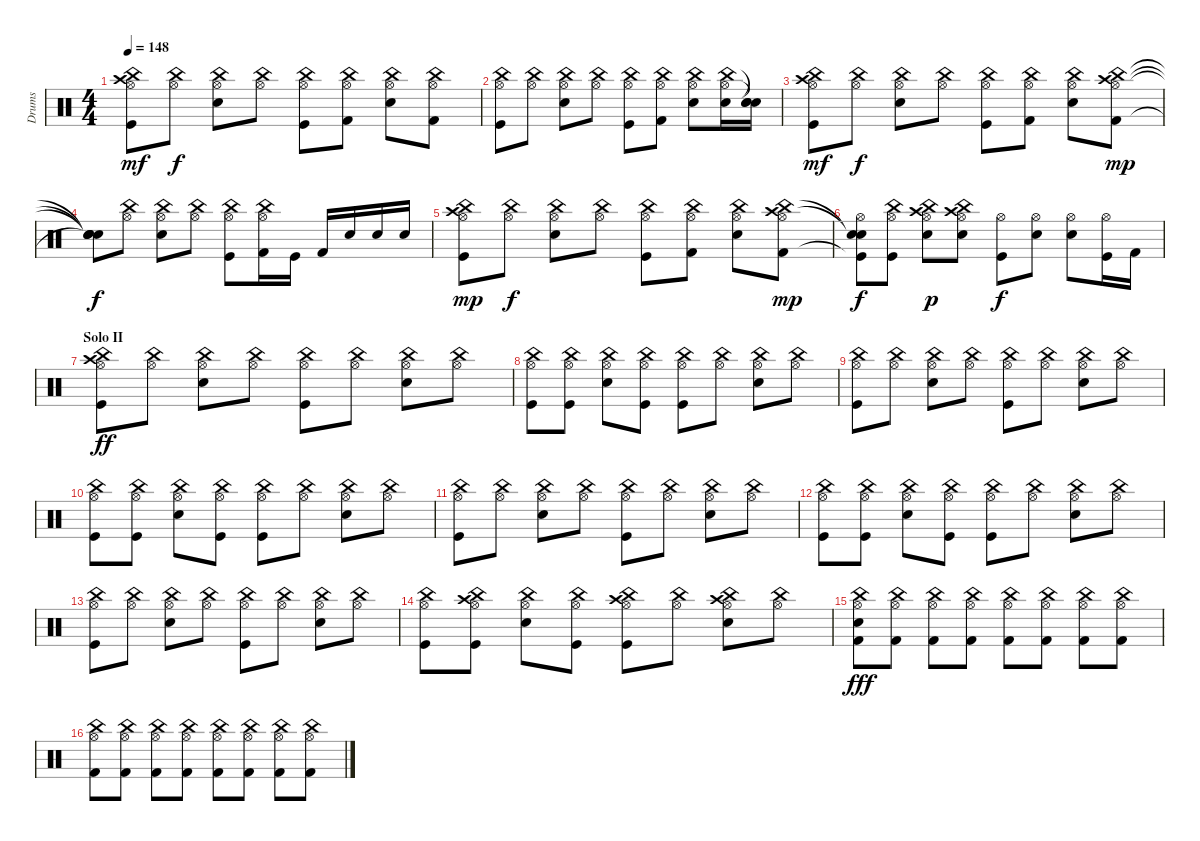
\track ("Drums" "Drums") {instrument percussion}
\staff {score}
\articulation defaults
\ts (4 4)
\tempo 148
\clef neutral
\ks c
("Crash high (hit)" "Hi-Hat (open)" "China (hit)" "Kick (hit)").8{dy mf} ("Hi-Hat (open)" "China (hit)").8{dy f} ("Hi-Hat (open)" "China (hit)" "Snare (hit) 2").8 ("Hi-Hat (open)" "China (hit)").8 ("Hi-Hat (open)" "China (hit)" "Kick (hit)").8 ("Hi-Hat (open)" "China (hit)" "Kick (hit) 2").8 ("Hi-Hat (open)" "China (hit)" "Snare (hit) 2").8 ("Hi-Hat (open)" "China (hit)" "Kick (hit) 2").8 |
("Hi-Hat (open)" "China (hit)" "Kick (hit)").8 ("Hi-Hat (open)" "China (hit)").8 ("Hi-Hat (open)" "China (hit)" "Snare (hit) 2").8 ("Hi-Hat (open)" "China (hit)").8 ("Hi-Hat (open)" "China (hit)" "Kick (hit)").8 ("Hi-Hat (open)" "China (hit)" "Kick (hit) 2").8 ("Hi-Hat (open)" "China (hit)" "Snare (hit) 2").8 ("Hi-Hat (open)" "China (hit)" "Snare (hit) 2").16 ("Snare (hit)"{t} "Snare (hit)"{t} "Electric Snare (hit)").16 |
("Crash high (hit)" "Hi-Hat (open)" "China (hit)" "Kick (hit)").8{dy mf} ("Hi-Hat (open)" "China (hit)").8{dy f} ("Hi-Hat (open)" "China (hit)" "Snare (hit) 2").8 ("Hi-Hat (open)" "China (hit)").8 ("Hi-Hat (open)" "China (hit)" "Kick (hit)").8 ("Hi-Hat (open)" "China (hit)" "Kick (hit) 2").8 ("Hi-Hat (open)" "China (hit)" "Snare (hit) 2").8 ("Crash high (hit)" "Hi-Hat (open)" "China (hit)" "Kick (hit) 2").8{dy mp} |
("Snare (hit)"{t} "Snare (hit)"{t} "Snare (hit)"{t} "Snare (hit)"{t}).8{dy f} ("Hi-Hat (open)" "China (hit)").8 ("Hi-Hat (open)" "China (hit)" "Snare (hit) 2").8 ("Hi-Hat (open)" "China (hit)").8 ("Hi-Hat (open)" "China (hit)" "Kick (hit)").8 ("Hi-Hat (open)" "China (hit)" "Kick (hit) 2").16 "Kick (hit)".16 "Kick (hit) 2".16 "Snare (hit) 2".16 "Electric Snare (hit)".16 "Snare (hit) 2".16 |
("Crash high (hit)" "Hi-Hat (open)" "China (hit)" "Kick (hit)").8{dy mp} ("Hi-Hat (open)" "China (hit)").8{dy f} ("Hi-Hat (open)" "China (hit)" "Snare (hit) 2").8 ("Hi-Hat (open)" "China (hit)").8 ("Hi-Hat (open)" "China (hit)" "Kick (hit)").8 ("Hi-Hat (open)" "China (hit)" "Kick (hit) 2").8 ("Hi-Hat (open)" "China (hit)" "Snare (hit) 2").8 ("Crash high (hit)" "Hi-Hat (open)" "China (hit)" "Kick (hit) 2").8{dy mp} |
("Snare (hit)"{t} "Hi-Hat (open)" "Snare (hit)"{t} "Kick (hit)"{t}).8{dy f} ("Hi-Hat (open)" "China (hit)" "Kick (hit)").8 ("Crash high (hit)" "Hi-Hat (open)" "China (hit)" "Snare (hit) 2").8{dy p} ("Crash high (hit)" "Hi-Hat (open)" "China (hit)" "Snare (hit) 2").8 ("Hi-Hat (open)" "Kick (hit)").8{dy f} ("Hi-Hat (open)" "Snare (hit) 2").8 ("Hi-Hat (open)" "Snare (hit) 2").8 ("Hi-Hat (open)" "Kick (hit)").16 "Kick (hit) 2".16 |
\section ("" "Solo II")
("Crash high (hit)" "Hi-Hat (open)" "China (hit)" "Kick (hit)").8{dy ff} ("Hi-Hat (open)" "China (hit)").8 ("Hi-Hat (open)" "China (hit)" "Snare (hit) 2").8 ("Hi-Hat (open)" "China (hit)").8 ("Hi-Hat (open)" "China (hit)" "Kick (hit)").8 ("Hi-Hat (open)" "China (hit)").8 ("Hi-Hat (open)" "China (hit)" "Snare (hit) 2").8 ("Hi-Hat (open)" "China (hit)").8 |
("Hi-Hat (open)" "China (hit)" "Kick (hit)").8 ("Hi-Hat (open)" "China (hit)" "Kick (hit)").8 ("Hi-Hat (open)" "China (hit)" "Snare (hit) 2").8 ("Hi-Hat (open)" "China (hit)" "Kick (hit)").8 ("Hi-Hat (open)" "China (hit)" "Kick (hit)").8 ("Hi-Hat (open)" "China (hit)").8 ("Hi-Hat (open)" "China (hit)" "Snare (hit) 2").8 ("Hi-Hat (open)" "China (hit)").8 |
("Hi-Hat (open)" "China (hit)" "Kick (hit)").8 ("Hi-Hat (open)" "China (hit)").8 ("Hi-Hat (open)" "China (hit)" "Snare (hit) 2").8 ("Hi-Hat (open)" "China (hit)").8 ("Hi-Hat (open)" "China (hit)" "Kick (hit)").8 ("Hi-Hat (open)" "China (hit)").8 ("Hi-Hat (open)" "China (hit)" "Snare (hit) 2").8 ("Hi-Hat (open)" "China (hit)").8 |
("Hi-Hat (open)" "China (hit)" "Kick (hit)").8 ("Hi-Hat (open)" "China (hit)" "Kick (hit)").8 ("Hi-Hat (open)" "China (hit)" "Snare (hit) 2").8 ("Hi-Hat (open)" "China (hit)" "Kick (hit)").8 ("Hi-Hat (open)" "China (hit)" "Kick (hit)").8 ("Hi-Hat (open)" "China (hit)").8 ("Hi-Hat (open)" "China (hit)" "Snare (hit) 2").8 ("Hi-Hat (open)" "China (hit)").8 |
("Hi-Hat (open)" "China (hit)" "Kick (hit)").8 ("Hi-Hat (open)" "China (hit)").8 ("Hi-Hat (open)" "China (hit)" "Snare (hit) 2").8 ("Hi-Hat (open)" "China (hit)").8 ("Hi-Hat (open)" "China (hit)" "Kick (hit)").8 ("Hi-Hat (open)" "China (hit)").8 ("Hi-Hat (open)" "China (hit)" "Snare (hit) 2").8 ("Hi-Hat (open)" "China (hit)").8 |
("Hi-Hat (open)" "China (hit)" "Kick (hit)").8 ("Hi-Hat (open)" "China (hit)" "Kick (hit)").8 ("Hi-Hat (open)" "China (hit)" "Snare (hit) 2").8 ("Hi-Hat (open)" "China (hit)" "Kick (hit)").8 ("Hi-Hat (open)" "China (hit)" "Kick (hit)").8 ("Hi-Hat (open)" "China (hit)").8 ("Hi-Hat (open)" "China (hit)" "Snare (hit) 2").8 ("Hi-Hat (open)" "China (hit)").8 |
("Hi-Hat (open)" "China (hit)" "Kick (hit)").8 ("Hi-Hat (open)" "China (hit)").8 ("Hi-Hat (open)" "China (hit)" "Snare (hit) 2").8 ("Hi-Hat (open)" "China (hit)").8 ("Hi-Hat (open)" "China (hit)" "Kick (hit)").8 ("Hi-Hat (open)" "China (hit)").8 ("Hi-Hat (open)" "China (hit)" "Snare (hit) 2").8 ("Hi-Hat (open)" "China (hit)").8 |
("Hi-Hat (open)" "China (hit)" "Kick (hit)").8 ("Crash high (hit)" "Hi-Hat (open)" "China (hit)" "Kick (hit)").8 ("Hi-Hat (open)" "China (hit)" "Snare (hit) 2").8 ("Hi-Hat (open)" "China (hit)" "Kick (hit)").8 ("Crash high (hit)" "Hi-Hat (open)" "China (hit)" "Kick (hit)").8 ("Hi-Hat (open)" "China (hit)").8 ("Crash high (hit)" "Hi-Hat (open)" "China (hit)" "Snare (hit) 2").8 ("Hi-Hat (open)" "China (hit)").8 |
("Hi-Hat (open)" "China (hit)" "Snare (hit) 2" "Kick (hit) 2").8{dy fff} ("Hi-Hat (open)" "China (hit)" "Kick (hit) 2").8 ("Hi-Hat (open)" "China (hit)" "Kick (hit) 2").8 ("Hi-Hat (open)" "China (hit)" "Kick (hit) 2").8 ("Hi-Hat (open)" "China (hit)" "Kick (hit) 2").8 ("Hi-Hat (open)" "China (hit)" "Kick (hit) 2").8 ("Hi-Hat (open)" "China (hit)" "Kick (hit) 2").8 ("Hi-Hat (open)" "China (hit)" "Kick (hit) 2").8 |
("Hi-Hat (open)" "China (hit)" "Kick (hit) 2").8 ("Hi-Hat (open)" "China (hit)" "Kick (hit) 2").8 ("Hi-Hat (open)" "China (hit)" "Kick (hit) 2").8 ("Hi-Hat (open)" "China (hit)" "Kick (hit) 2").8 ("Hi-Hat (open)" "China (hit)" "Kick (hit) 2").8 ("Hi-Hat (open)" "China (hit)" "Kick (hit) 2").8 ("Hi-Hat (open)" "China (hit)" "Kick (hit) 2").8 ("Hi-Hat (open)" "China (hit)" "Kick (hit) 2").8
